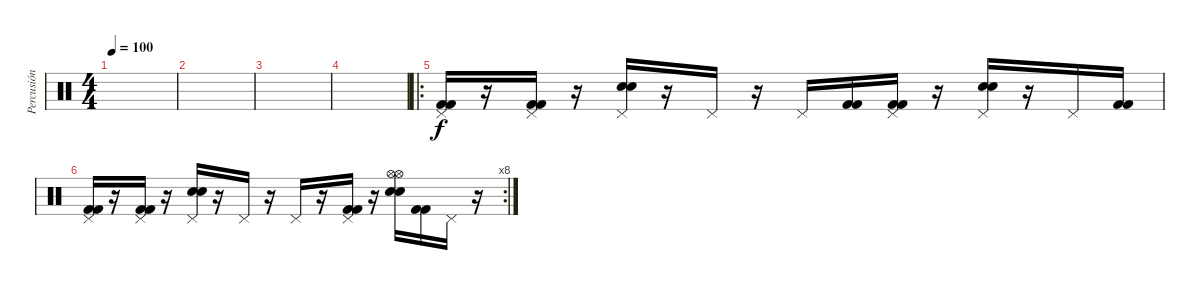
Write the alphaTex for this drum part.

\track ("Percusión" "Percusión") {instrument percussion}
\staff {score}
\articulation defaults
\ts (4 4)
\tempo 100
\clef neutral
\ks c
|
|
|
|
\ro
("Pedal Hi-Hat (hit)" "Kick (hit) 2" "Kick (hit) 2").16 r.16 ("Pedal Hi-Hat (hit)" "Kick (hit) 2" "Kick (hit) 2").16 r.16 ("Pedal Hi-Hat (hit)" "Electric Snare (hit)" "Electric Snare (hit)").16 r.16 "Pedal Hi-Hat (hit)".16 r.16 "Pedal Hi-Hat (hit)".16 ("Kick (hit) 2" "Kick (hit) 2").16 ("Pedal Hi-Hat (hit)" "Kick (hit) 2" "Kick (hit) 2").16 r.16 ("Pedal Hi-Hat (hit)" "Electric Snare (hit)" "Electric Snare (hit)").16 r.16 "Pedal Hi-Hat (hit)".16 ("Kick (hit) 2" "Kick (hit) 2").16 |
\rc 8
("Pedal Hi-Hat (hit)" "Kick (hit) 2" "Kick (hit) 2").16 r.16 ("Pedal Hi-Hat (hit)" "Kick (hit) 2" "Kick (hit) 2").16 r.16 ("Pedal Hi-Hat (hit)" "Electric Snare (hit)" "Electric Snare (hit)").16 r.16 "Pedal Hi-Hat (hit)".16 r.16 "Pedal Hi-Hat (hit)".16 r.16 ("Pedal Hi-Hat (hit)" "Kick (hit) 2" "Kick (hit) 2").16 r.16 ("Hi-Hat (open)" "Hi-Hat (open)" "Electric Snare (hit)" "Electric Snare (hit)").16 ("Kick (hit) 2" "Kick (hit) 2").16 "Pedal Hi-Hat (hit)".16 r.16
